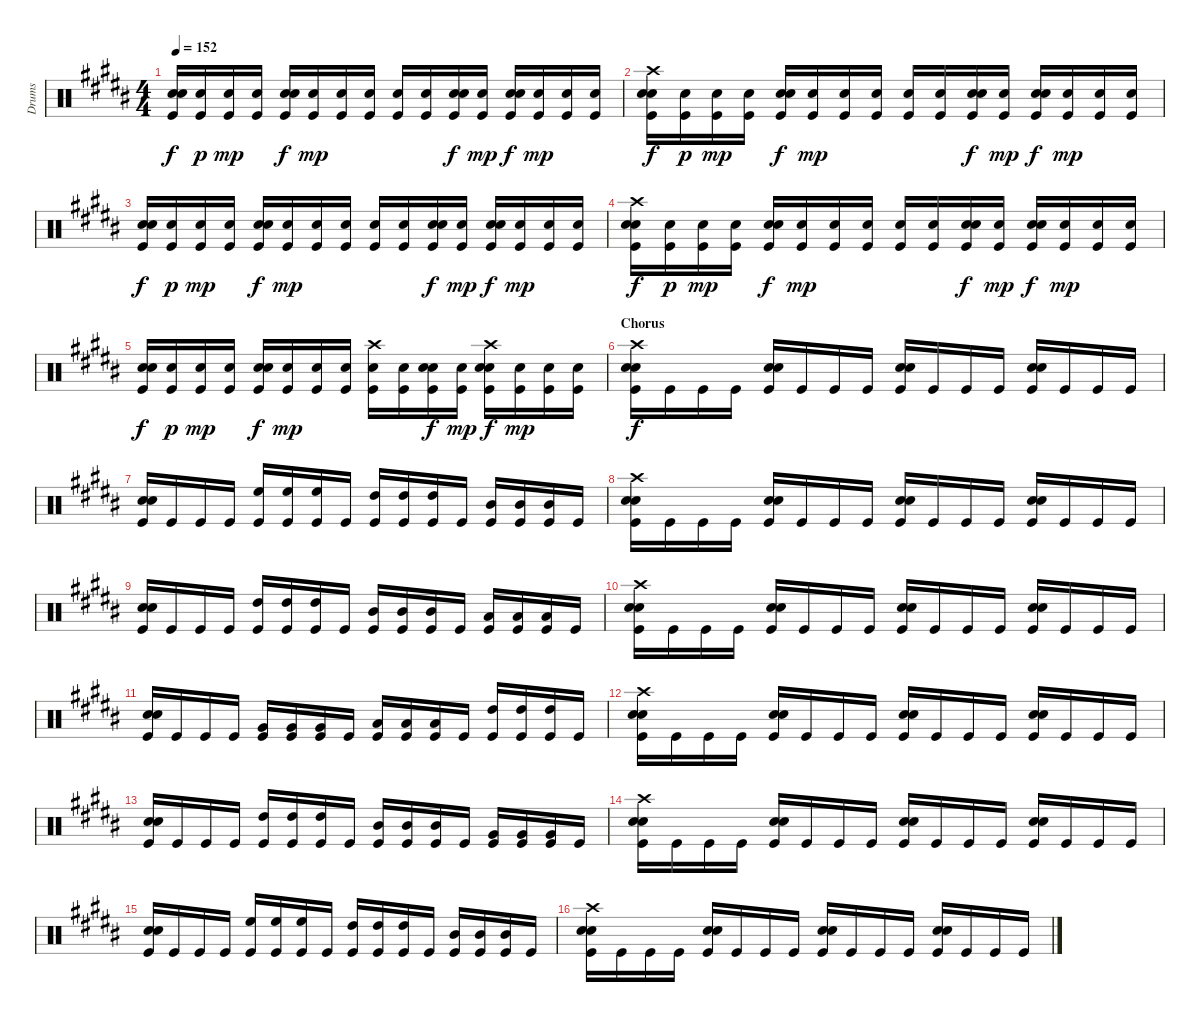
\track ("Drums" "Drums") {instrument percussion}
\staff {score}
\articulation defaults
\ts (4 4)
\tempo 152
\clef neutral
\ks b
("Electric Snare (hit)" "Snare (hit) 2" "Kick (hit)").16{dy f} ("Snare (hit) 2" "Kick (hit)").16{dy p} ("Snare (hit) 2" "Kick (hit)").16{dy mp} ("Snare (hit) 2" "Kick (hit)").16 ("Electric Snare (hit)" "Snare (hit) 2" "Kick (hit)").16{dy f} ("Snare (hit) 2" "Kick (hit)").16{dy mp} ("Snare (hit) 2" "Kick (hit)").16 ("Snare (hit) 2" "Kick (hit)").16 ("Snare (hit) 2" "Kick (hit)").16 ("Snare (hit) 2" "Kick (hit)").16 ("Electric Snare (hit)" "Snare (hit) 2" "Kick (hit)").16{dy f} ("Snare (hit) 2" "Kick (hit)").16{dy mp} ("Electric Snare (hit)" "Snare (hit) 2" "Kick (hit)").16{dy f} ("Snare (hit) 2" "Kick (hit)").16{dy mp} ("Snare (hit) 2" "Kick (hit)").16 ("Snare (hit) 2" "Kick (hit)").16 |
("Crash high (hit)" "Electric Snare (hit)" "Snare (hit) 2" "Kick (hit)").16{dy f} ("Snare (hit) 2" "Kick (hit)").16{dy p} ("Snare (hit) 2" "Kick (hit)").16{dy mp} ("Snare (hit) 2" "Kick (hit)").16 ("Electric Snare (hit)" "Snare (hit) 2" "Kick (hit)").16{dy f} ("Snare (hit) 2" "Kick (hit)").16{dy mp} ("Snare (hit) 2" "Kick (hit)").16 ("Snare (hit) 2" "Kick (hit)").16 ("Snare (hit) 2" "Kick (hit)").16 ("Snare (hit) 2" "Kick (hit)").16 ("Electric Snare (hit)" "Snare (hit) 2" "Kick (hit)").16{dy f} ("Snare (hit) 2" "Kick (hit)").16{dy mp} ("Electric Snare (hit)" "Snare (hit) 2" "Kick (hit)").16{dy f} ("Snare (hit) 2" "Kick (hit)").16{dy mp} ("Snare (hit) 2" "Kick (hit)").16 ("Snare (hit) 2" "Kick (hit)").16 |
("Electric Snare (hit)" "Snare (hit) 2" "Kick (hit)").16{dy f} ("Snare (hit) 2" "Kick (hit)").16{dy p} ("Snare (hit) 2" "Kick (hit)").16{dy mp} ("Snare (hit) 2" "Kick (hit)").16 ("Electric Snare (hit)" "Snare (hit) 2" "Kick (hit)").16{dy f} ("Snare (hit) 2" "Kick (hit)").16{dy mp} ("Snare (hit) 2" "Kick (hit)").16 ("Snare (hit) 2" "Kick (hit)").16 ("Snare (hit) 2" "Kick (hit)").16 ("Snare (hit) 2" "Kick (hit)").16 ("Electric Snare (hit)" "Snare (hit) 2" "Kick (hit)").16{dy f} ("Snare (hit) 2" "Kick (hit)").16{dy mp} ("Electric Snare (hit)" "Snare (hit) 2" "Kick (hit)").16{dy f} ("Snare (hit) 2" "Kick (hit)").16{dy mp} ("Snare (hit) 2" "Kick (hit)").16 ("Snare (hit) 2" "Kick (hit)").16 |
("Crash high (hit)" "Electric Snare (hit)" "Snare (hit) 2" "Kick (hit)").16{dy f} ("Snare (hit) 2" "Kick (hit)").16{dy p} ("Snare (hit) 2" "Kick (hit)").16{dy mp} ("Snare (hit) 2" "Kick (hit)").16 ("Electric Snare (hit)" "Snare (hit) 2" "Kick (hit)").16{dy f} ("Snare (hit) 2" "Kick (hit)").16{dy mp} ("Snare (hit) 2" "Kick (hit)").16 ("Snare (hit) 2" "Kick (hit)").16 ("Snare (hit) 2" "Kick (hit)").16 ("Snare (hit) 2" "Kick (hit)").16 ("Electric Snare (hit)" "Snare (hit) 2" "Kick (hit)").16{dy f} ("Snare (hit) 2" "Kick (hit)").16{dy mp} ("Electric Snare (hit)" "Snare (hit) 2" "Kick (hit)").16{dy f} ("Snare (hit) 2" "Kick (hit)").16{dy mp} ("Snare (hit) 2" "Kick (hit)").16 ("Snare (hit) 2" "Kick (hit)").16 |
("Electric Snare (hit)" "Snare (hit) 2" "Kick (hit)").16{dy f} ("Snare (hit) 2" "Kick (hit)").16{dy p} ("Snare (hit) 2" "Kick (hit)").16{dy mp} ("Snare (hit) 2" "Kick (hit)").16 ("Electric Snare (hit)" "Snare (hit) 2" "Kick (hit)").16{dy f} ("Snare (hit) 2" "Kick (hit)").16{dy mp} ("Snare (hit) 2" "Kick (hit)").16 ("Snare (hit) 2" "Kick (hit)").16 ("Crash high (hit)" "Snare (hit) 2" "Kick (hit)").16 ("Snare (hit) 2" "Kick (hit)").16 ("Electric Snare (hit)" "Snare (hit) 2" "Kick (hit)").16{dy f} ("Snare (hit) 2" "Kick (hit)").16{dy mp} ("Crash high (hit)" "Electric Snare (hit)" "Snare (hit) 2" "Kick (hit)").16{dy f} ("Snare (hit) 2" "Kick (hit)").16{dy mp} ("Snare (hit) 2" "Kick (hit)").16 ("Snare (hit) 2" "Kick (hit)").16 |
\section ("" "Chorus")
("Crash high (hit)" "Snare (hit) 2" "Electric Snare (hit)" "Kick (hit)").16{dy f} "Kick (hit)".16 "Kick (hit)".16 "Kick (hit)".16 ("Snare (hit) 2" "Electric Snare (hit)" "Kick (hit)").16 "Kick (hit)".16 "Kick (hit)".16 "Kick (hit)".16 ("Snare (hit) 2" "Electric Snare (hit)" "Kick (hit)").16 "Kick (hit)".16 "Kick (hit)".16 "Kick (hit)".16 ("Snare (hit) 2" "Electric Snare (hit)" "Kick (hit)").16 "Kick (hit)".16 "Kick (hit)".16 "Kick (hit)".16 |
("Snare (hit) 2" "Electric Snare (hit)" "Kick (hit)").16 "Kick (hit)".16 "Kick (hit)".16 "Kick (hit)".16 ("High Floor Tom (hit)" "Kick (hit)").16 ("High Floor Tom (hit)" "Kick (hit)").16 ("High Floor Tom (hit)" "Kick (hit)").16 "Kick (hit)".16 ("High Tom (hit)" "Kick (hit)").16 ("High Tom (hit)" "Kick (hit)").16 ("High Tom (hit)" "Kick (hit)").16 "Kick (hit)".16 ("Mid Tom (hit)" "Kick (hit)").16 ("Mid Tom (hit)" "Kick (hit)").16 ("Mid Tom (hit)" "Kick (hit)").16 "Kick (hit)".16 |
("Crash high (hit)" "Snare (hit) 2" "Electric Snare (hit)" "Kick (hit)").16 "Kick (hit)".16 "Kick (hit)".16 "Kick (hit)".16 ("Snare (hit) 2" "Electric Snare (hit)" "Kick (hit)").16 "Kick (hit)".16 "Kick (hit)".16 "Kick (hit)".16 ("Snare (hit) 2" "Electric Snare (hit)" "Kick (hit)").16 "Kick (hit)".16 "Kick (hit)".16 "Kick (hit)".16 ("Snare (hit) 2" "Electric Snare (hit)" "Kick (hit)").16 "Kick (hit)".16 "Kick (hit)".16 "Kick (hit)".16 |
("Snare (hit) 2" "Electric Snare (hit)" "Kick (hit)").16 "Kick (hit)".16 "Kick (hit)".16 "Kick (hit)".16 ("High Tom (hit)" "Kick (hit)").16 ("High Tom (hit)" "Kick (hit)").16 ("High Tom (hit)" "Kick (hit)").16 "Kick (hit)".16 ("Mid Tom (hit)" "Kick (hit)").16 ("Mid Tom (hit)" "Kick (hit)").16 ("Mid Tom (hit)" "Kick (hit)").16 "Kick (hit)".16 ("Low Tom (hit)" "Kick (hit)").16 ("Low Tom (hit)" "Kick (hit)").16 ("Low Tom (hit)" "Kick (hit)").16 "Kick (hit)".16 |
("Crash high (hit)" "Snare (hit) 2" "Electric Snare (hit)" "Kick (hit)").16 "Kick (hit)".16 "Kick (hit)".16 "Kick (hit)".16 ("Snare (hit) 2" "Electric Snare (hit)" "Kick (hit)").16 "Kick (hit)".16 "Kick (hit)".16 "Kick (hit)".16 ("Snare (hit) 2" "Electric Snare (hit)" "Kick (hit)").16 "Kick (hit)".16 "Kick (hit)".16 "Kick (hit)".16 ("Snare (hit) 2" "Electric Snare (hit)" "Kick (hit)").16 "Kick (hit)".16 "Kick (hit)".16 "Kick (hit)".16 |
("Snare (hit) 2" "Electric Snare (hit)" "Kick (hit)").16 "Kick (hit)".16 "Kick (hit)".16 "Kick (hit)".16 ("Very Low Tom (hit)" "Kick (hit)").16 ("Very Low Tom (hit)" "Kick (hit)").16 ("Very Low Tom (hit)" "Kick (hit)").16 "Kick (hit)".16 ("Low Tom (hit)" "Kick (hit)").16 ("Low Tom (hit)" "Kick (hit)").16 ("Low Tom (hit)" "Kick (hit)").16 "Kick (hit)".16 ("High Tom (hit)" "Kick (hit)").16 ("High Tom (hit)" "Kick (hit)").16 ("High Tom (hit)" "Kick (hit)").16 "Kick (hit)".16 |
("Crash high (hit)" "Snare (hit) 2" "Electric Snare (hit)" "Kick (hit)").16 "Kick (hit)".16 "Kick (hit)".16 "Kick (hit)".16 ("Snare (hit) 2" "Electric Snare (hit)" "Kick (hit)").16 "Kick (hit)".16 "Kick (hit)".16 "Kick (hit)".16 ("Snare (hit) 2" "Electric Snare (hit)" "Kick (hit)").16 "Kick (hit)".16 "Kick (hit)".16 "Kick (hit)".16 ("Snare (hit) 2" "Electric Snare (hit)" "Kick (hit)").16 "Kick (hit)".16 "Kick (hit)".16 "Kick (hit)".16 |
("Snare (hit) 2" "Electric Snare (hit)" "Kick (hit)").16 "Kick (hit)".16 "Kick (hit)".16 "Kick (hit)".16 ("High Tom (hit)" "Kick (hit)").16 ("High Tom (hit)" "Kick (hit)").16 ("High Tom (hit)" "Kick (hit)").16 "Kick (hit)".16 ("Mid Tom (hit)" "Kick (hit)").16 ("Mid Tom (hit)" "Kick (hit)").16 ("Mid Tom (hit)" "Kick (hit)").16 "Kick (hit)".16 ("Very Low Tom (hit)" "Kick (hit)").16 ("Very Low Tom (hit)" "Kick (hit)").16 ("Very Low Tom (hit)" "Kick (hit)").16 "Kick (hit)".16 |
("Crash high (hit)" "Snare (hit) 2" "Electric Snare (hit)" "Kick (hit)").16 "Kick (hit)".16 "Kick (hit)".16 "Kick (hit)".16 ("Snare (hit) 2" "Electric Snare (hit)" "Kick (hit)").16 "Kick (hit)".16 "Kick (hit)".16 "Kick (hit)".16 ("Snare (hit) 2" "Electric Snare (hit)" "Kick (hit)").16 "Kick (hit)".16 "Kick (hit)".16 "Kick (hit)".16 ("Snare (hit) 2" "Electric Snare (hit)" "Kick (hit)").16 "Kick (hit)".16 "Kick (hit)".16 "Kick (hit)".16 |
("Snare (hit) 2" "Electric Snare (hit)" "Kick (hit)").16 "Kick (hit)".16 "Kick (hit)".16 "Kick (hit)".16 ("High Floor Tom (hit)" "Kick (hit)").16 ("High Floor Tom (hit)" "Kick (hit)").16 ("High Floor Tom (hit)" "Kick (hit)").16 "Kick (hit)".16 ("High Tom (hit)" "Kick (hit)").16 ("High Tom (hit)" "Kick (hit)").16 ("High Tom (hit)" "Kick (hit)").16 "Kick (hit)".16 ("Mid Tom (hit)" "Kick (hit)").16 ("Mid Tom (hit)" "Kick (hit)").16 ("Mid Tom (hit)" "Kick (hit)").16 "Kick (hit)".16 |
("Crash high (hit)" "Snare (hit) 2" "Electric Snare (hit)" "Kick (hit)").16 "Kick (hit)".16 "Kick (hit)".16 "Kick (hit)".16 ("Snare (hit) 2" "Electric Snare (hit)" "Kick (hit)").16 "Kick (hit)".16 "Kick (hit)".16 "Kick (hit)".16 ("Snare (hit) 2" "Electric Snare (hit)" "Kick (hit)").16 "Kick (hit)".16 "Kick (hit)".16 "Kick (hit)".16 ("Snare (hit) 2" "Electric Snare (hit)" "Kick (hit)").16 "Kick (hit)".16 "Kick (hit)".16 "Kick (hit)".16
